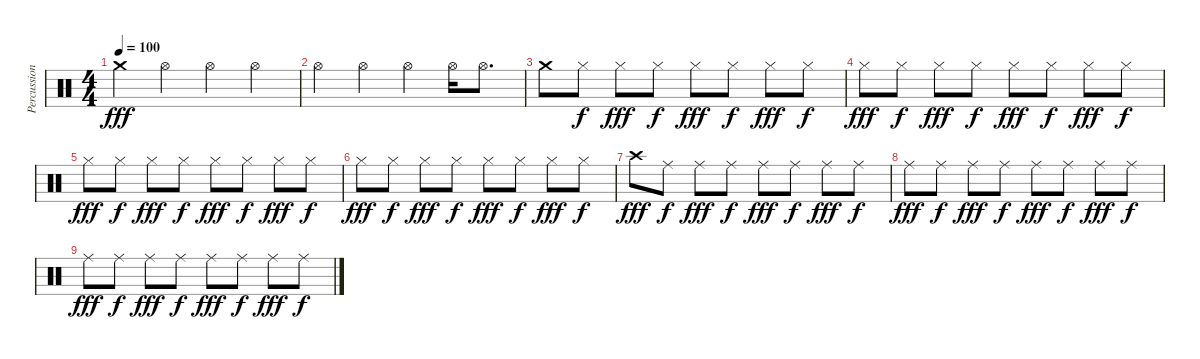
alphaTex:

\track ("Percussion" "Percussion") {instrument percussion}
\staff {score}
\articulation defaults
\ts (4 4)
\tempo 100
\clef neutral
\ks c "Crash medium (hit)".4{dy fff} "Hi-Hat (open)".4 "Hi-Hat (open)".4 "Hi-Hat (open)".4
|
"Hi-Hat (open)".4 "Hi-Hat (open)".4 "Hi-Hat (open)".4 "Hi-Hat (open)".16 "Hi-Hat (open)".8{d} |
"Crash medium (hit)".8 "Hi-Hat (closed)".8{dy f} "Hi-Hat (closed)".8{dy fff} "Hi-Hat (closed)".8{dy f} "Hi-Hat (closed)".8{dy fff} "Hi-Hat (closed)".8{dy f} "Hi-Hat (closed)".8{dy fff} "Hi-Hat (closed)".8{dy f} |
"Hi-Hat (closed)".8{dy fff} "Hi-Hat (closed)".8{dy f} "Hi-Hat (closed)".8{dy fff} "Hi-Hat (closed)".8{dy f} "Hi-Hat (closed)".8{dy fff} "Hi-Hat (closed)".8{dy f} "Hi-Hat (closed)".8{dy fff} "Hi-Hat (closed)".8{dy f} |
"Hi-Hat (closed)".8{dy fff} "Hi-Hat (closed)".8{dy f} "Hi-Hat (closed)".8{dy fff} "Hi-Hat (closed)".8{dy f} "Hi-Hat (closed)".8{dy fff} "Hi-Hat (closed)".8{dy f} "Hi-Hat (closed)".8{dy fff} "Hi-Hat (closed)".8{dy f} |
"Hi-Hat (closed)".8{dy fff} "Hi-Hat (closed)".8{dy f} "Hi-Hat (closed)".8{dy fff} "Hi-Hat (closed)".8{dy f} "Hi-Hat (closed)".8{dy fff} "Hi-Hat (closed)".8{dy f} "Hi-Hat (closed)".8{dy fff} "Hi-Hat (closed)".8{dy f} |
"Crash high (hit)".8{dy fff} "Ride (middle)".8{dy f} "Ride (middle)".8{dy fff} "Ride (middle)".8{dy f} "Ride (middle)".8{dy fff} "Ride (middle)".8{dy f} "Ride (middle)".8{dy fff} "Ride (middle)".8{dy f} |
"Ride (middle)".8{dy fff} "Ride (middle)".8{dy f} "Ride (middle)".8{dy fff} "Ride (middle)".8{dy f} "Ride (middle)".8{dy fff} "Ride (middle)".8{dy f} "Ride (middle)".8{dy fff} "Ride (middle)".8{dy f} |
"Ride (middle)".8{dy fff} "Ride (middle)".8{dy f} "Ride (middle)".8{dy fff} "Ride (middle)".8{dy f} "Ride (middle)".8{dy fff} "Ride (middle)".8{dy f} "Ride (middle)".8{dy fff} "Ride (middle)".8{dy f}
